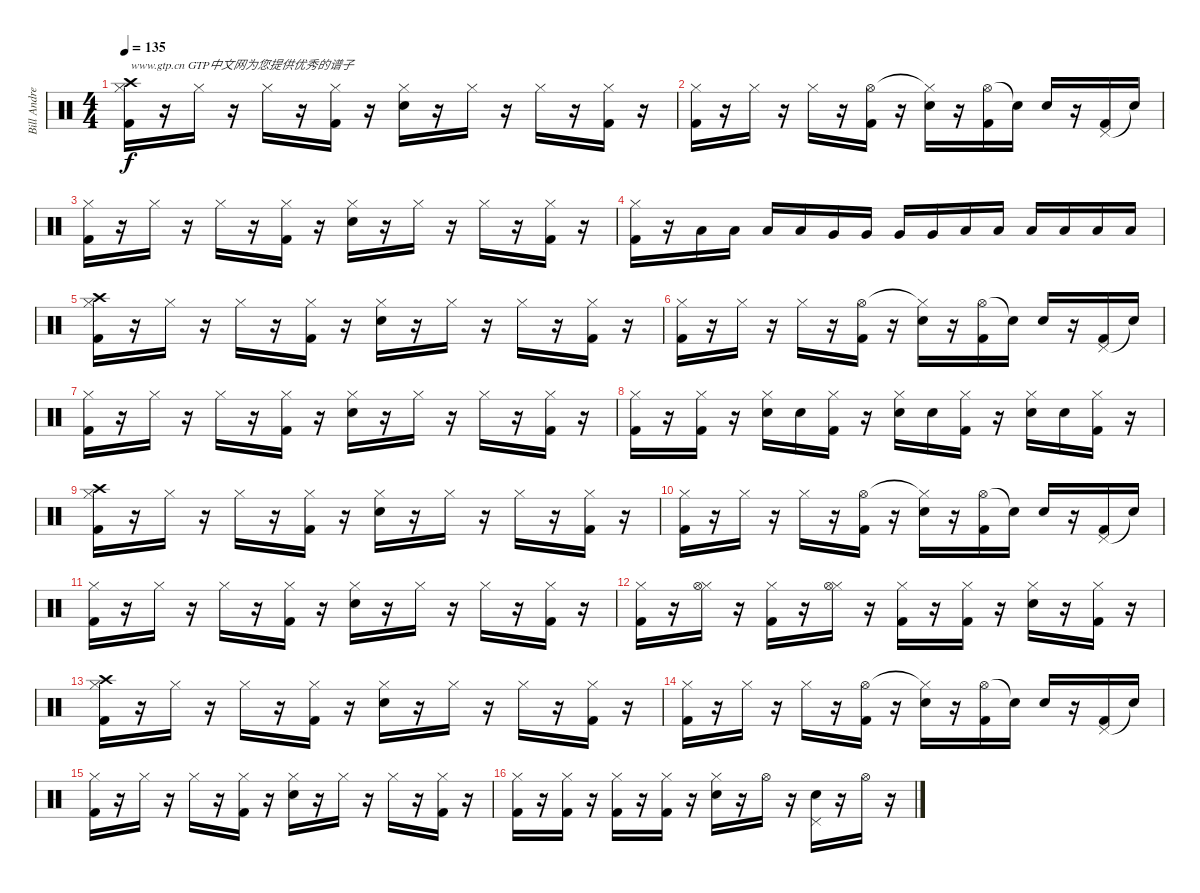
\track ("Bill Andrews" "Bill Andre") {instrument percussion}
\staff {score}
\articulation defaults
\ts (4 4)
\tempo 135
\clef neutral
\ks c
("Hi-Hat (closed)" "Crash high (hit)" "Kick (hit) 2").16{txt "www.gtp.cn GTP中文网为您提供优秀的谱子" dy f} r.16 "Hi-Hat (closed)".16 r.16 "Hi-Hat (closed)".16 r.16 ("Hi-Hat (closed)" "Kick (hit) 2").16 r.16 ("Hi-Hat (closed)" "Snare (hit) 2").16 r.16 "Hi-Hat (closed)".16 r.16 "Hi-Hat (closed)".16 r.16 ("Hi-Hat (closed)" "Kick (hit) 2").16 r.16 |
("Hi-Hat (closed)" "Kick (hit) 2").16 r.16 "Hi-Hat (closed)".16 r.16 "Hi-Hat (closed)".16 r.16 ("Hi-Hat (open)" "Kick (hit) 2").16 r.16 ("Hi-Hat (closed)"{t} "Snare (hit) 2").16 r.16 ("Hi-Hat (open)" "Kick (hit) 2").16 "Snare (hit)"{t}.16 "Snare (hit) 2".16 r.16 ("Pedal Hi-Hat (hit)" "Kick (hit) 2").16 "Snare (hit)"{t}.16 |
("Hi-Hat (closed)" "Kick (hit) 2").16 r.16 "Hi-Hat (closed)".16 r.16 "Hi-Hat (closed)".16 r.16 ("Hi-Hat (closed)" "Kick (hit) 2").16 r.16 ("Hi-Hat (closed)" "Snare (hit) 2").16 r.16 "Hi-Hat (closed)".16 r.16 "Hi-Hat (closed)".16 r.16 ("Hi-Hat (closed)" "Kick (hit) 2").16 r.16 |
("Hi-Hat (closed)" "Kick (hit) 2").16 r.16 "Low Tom (hit)".16 "Low Tom (hit)".16 "Low Tom (hit)".16 "Low Tom (hit)".16 "Very Low Tom (hit)".16 "Very Low Tom (hit)".16 "Very Low Tom (hit)".16 "Very Low Tom (hit)".16 "Low Floor Tom (hit)".16 "Low Floor Tom (hit)".16 "Low Floor Tom (hit)".16 "Low Floor Tom (hit)".16 "Low Floor Tom (hit)".16 "Low Floor Tom (hit)".16 |
("Hi-Hat (closed)" "Crash high (hit)" "Kick (hit) 2").16 r.16 "Hi-Hat (closed)".16 r.16 "Hi-Hat (closed)".16 r.16 ("Hi-Hat (closed)" "Kick (hit) 2").16 r.16 ("Hi-Hat (closed)" "Snare (hit) 2").16 r.16 "Hi-Hat (closed)".16 r.16 "Hi-Hat (closed)".16 r.16 ("Hi-Hat (closed)" "Kick (hit) 2").16 r.16 |
("Hi-Hat (closed)" "Kick (hit) 2").16 r.16 "Hi-Hat (closed)".16 r.16 "Hi-Hat (closed)".16 r.16 ("Hi-Hat (open)" "Kick (hit) 2").16 r.16 ("Hi-Hat (closed)"{t} "Snare (hit) 2").16 r.16 ("Hi-Hat (open)" "Kick (hit) 2").16 "Snare (hit)"{t}.16 "Snare (hit) 2".16 r.16 ("Pedal Hi-Hat (hit)" "Kick (hit) 2").16 "Snare (hit)"{t}.16 |
("Hi-Hat (closed)" "Kick (hit) 2").16 r.16 "Hi-Hat (closed)".16 r.16 "Hi-Hat (closed)".16 r.16 ("Hi-Hat (closed)" "Kick (hit) 2").16 r.16 ("Hi-Hat (closed)" "Snare (hit) 2").16 r.16 "Hi-Hat (closed)".16 r.16 "Hi-Hat (closed)".16 r.16 ("Hi-Hat (closed)" "Kick (hit) 2").16 r.16 |
("Hi-Hat (closed)" "Kick (hit) 2").16 r.16 ("Hi-Hat (closed)" "Kick (hit) 2").16 r.16 ("Hi-Hat (closed)" "Snare (hit) 2").16 "Snare (hit) 2".16 ("Hi-Hat (closed)" "Kick (hit) 2").16 r.16 ("Hi-Hat (closed)" "Snare (hit) 2").16 "Snare (hit) 2".16 ("Hi-Hat (closed)" "Kick (hit) 2").16 r.16 ("Hi-Hat (closed)" "Snare (hit) 2").16 "Snare (hit) 2".16 ("Hi-Hat (closed)" "Kick (hit) 2").16 r.16 |
("Hi-Hat (closed)" "Crash high (hit)" "Kick (hit) 2").16 r.16 "Hi-Hat (closed)".16 r.16 "Hi-Hat (closed)".16 r.16 ("Hi-Hat (closed)" "Kick (hit) 2").16 r.16 ("Hi-Hat (closed)" "Snare (hit) 2").16 r.16 "Hi-Hat (closed)".16 r.16 "Hi-Hat (closed)".16 r.16 ("Hi-Hat (closed)" "Kick (hit) 2").16 r.16 |
("Hi-Hat (closed)" "Kick (hit) 2").16 r.16 "Hi-Hat (closed)".16 r.16 "Hi-Hat (closed)".16 r.16 ("Hi-Hat (open)" "Kick (hit) 2").16 r.16 ("Hi-Hat (closed)"{t} "Snare (hit) 2").16 r.16 ("Hi-Hat (open)" "Kick (hit) 2").16 "Snare (hit)"{t}.16 "Snare (hit) 2".16 r.16 ("Pedal Hi-Hat (hit)" "Kick (hit) 2").16 "Snare (hit)"{t}.16 |
("Hi-Hat (closed)" "Kick (hit) 2").16 r.16 "Hi-Hat (closed)".16 r.16 "Hi-Hat (closed)".16 r.16 ("Hi-Hat (closed)" "Kick (hit) 2").16 r.16 ("Hi-Hat (closed)" "Snare (hit) 2").16 r.16 "Hi-Hat (closed)".16 r.16 "Hi-Hat (closed)".16 r.16 ("Hi-Hat (closed)" "Kick (hit) 2").16 r.16 |
("Hi-Hat (closed)" "Kick (hit) 2").16 r.16 ("Hi-Hat (closed)" "Hi-Hat (open)").16 r.16 ("Hi-Hat (closed)" "Kick (hit) 2").16 r.16 ("Hi-Hat (closed)" "Hi-Hat (open)").16 r.16 ("Hi-Hat (closed)" "Kick (hit) 2").16 r.16 ("Hi-Hat (closed)" "Kick (hit) 2").16 r.16 ("Hi-Hat (closed)" "Snare (hit) 2").16 r.16 ("Hi-Hat (closed)" "Kick (hit) 2").16 r.16 |
("Hi-Hat (closed)" "Crash high (hit)" "Kick (hit) 2").16 r.16 "Hi-Hat (closed)".16 r.16 "Hi-Hat (closed)".16 r.16 ("Hi-Hat (closed)" "Kick (hit) 2").16 r.16 ("Hi-Hat (closed)" "Snare (hit) 2").16 r.16 "Hi-Hat (closed)".16 r.16 "Hi-Hat (closed)".16 r.16 ("Hi-Hat (closed)" "Kick (hit) 2").16 r.16 |
("Hi-Hat (closed)" "Kick (hit) 2").16 r.16 "Hi-Hat (closed)".16 r.16 "Hi-Hat (closed)".16 r.16 ("Hi-Hat (open)" "Kick (hit) 2").16 r.16 ("Hi-Hat (closed)"{t} "Snare (hit) 2").16 r.16 ("Hi-Hat (open)" "Kick (hit) 2").16 "Snare (hit)"{t}.16 "Snare (hit) 2".16 r.16 ("Pedal Hi-Hat (hit)" "Kick (hit) 2").16 "Snare (hit)"{t}.16 |
("Hi-Hat (closed)" "Kick (hit) 2").16 r.16 "Hi-Hat (closed)".16 r.16 "Hi-Hat (closed)".16 r.16 ("Hi-Hat (closed)" "Kick (hit) 2").16 r.16 ("Hi-Hat (closed)" "Snare (hit) 2").16 r.16 "Hi-Hat (closed)".16 r.16 "Hi-Hat (closed)".16 r.16 ("Hi-Hat (closed)" "Kick (hit) 2").16 r.16 |
("Hi-Hat (closed)" "Kick (hit) 2").16 r.16 ("Hi-Hat (closed)" "Kick (hit) 2").16 r.16 ("Hi-Hat (closed)" "Kick (hit) 2").16 r.16 ("Hi-Hat (closed)" "Kick (hit) 2").16 r.16 ("Hi-Hat (closed)" "Snare (hit) 2").16 r.16 "Hi-Hat (open)".16 r.16 ("Pedal Hi-Hat (hit)" "Snare (hit) 2").16 r.16 "Hi-Hat (open)".16 r.16
